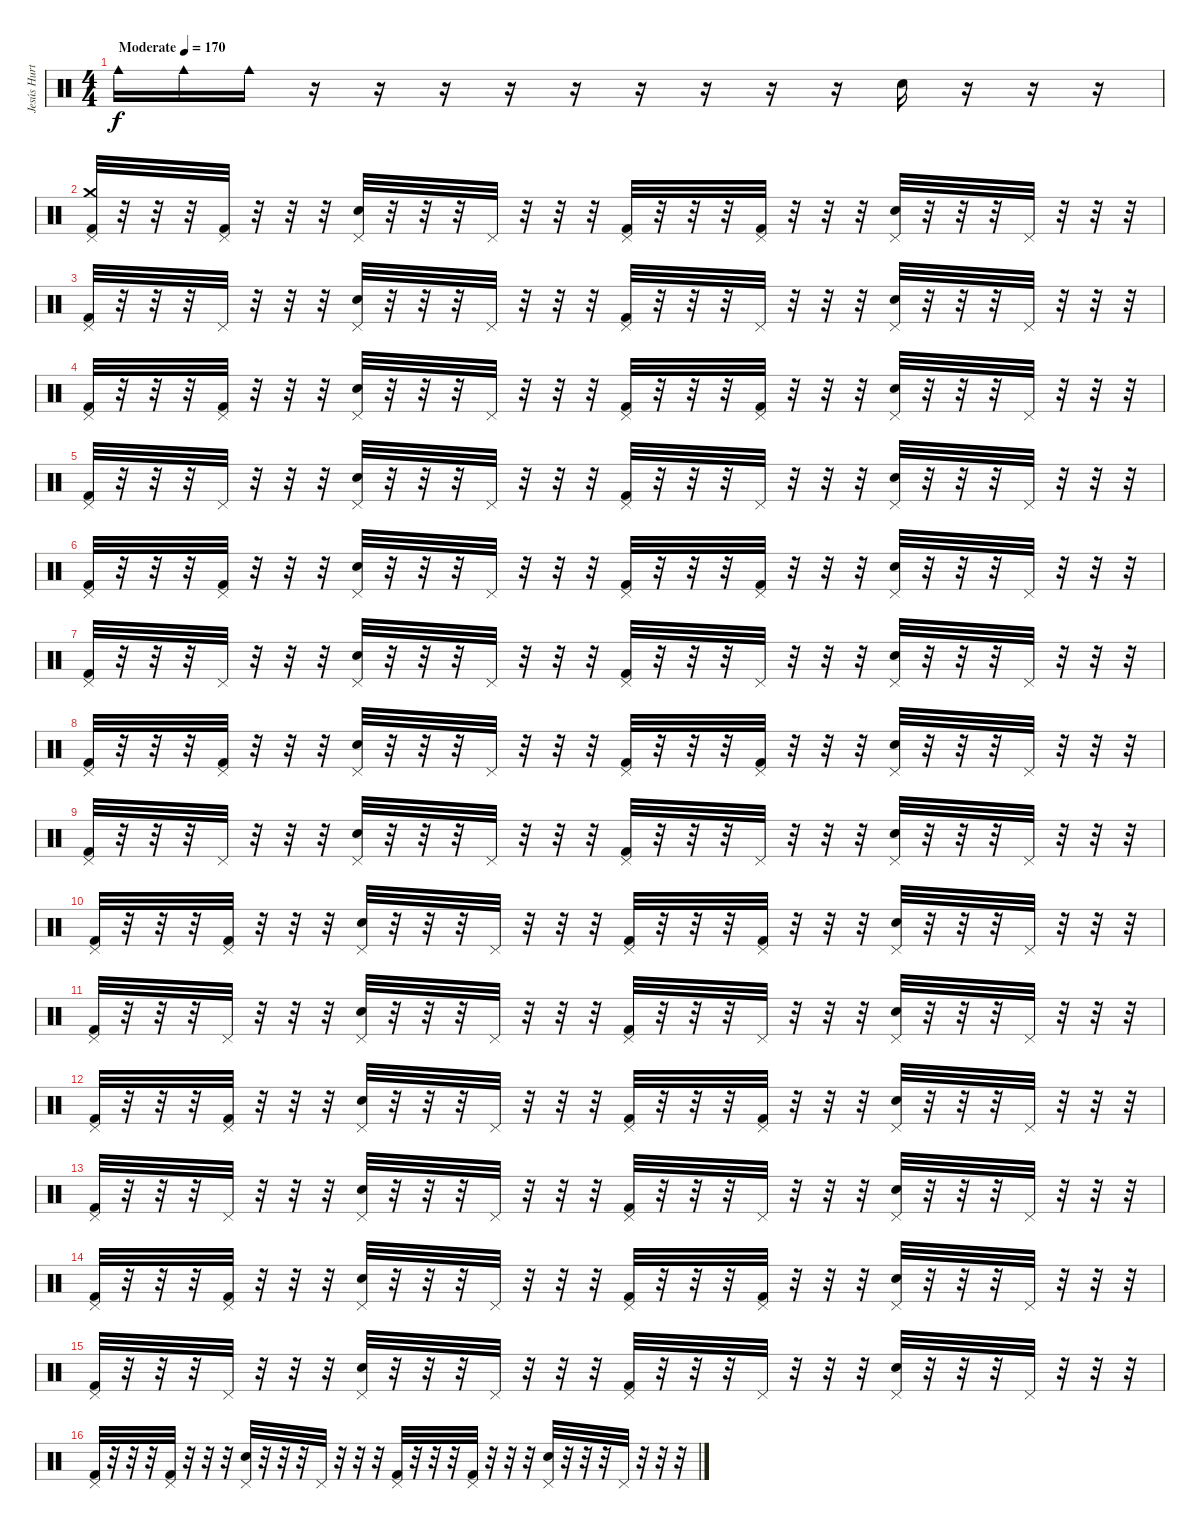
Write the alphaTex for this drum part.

\track ("Jesús Hurtado \"Jotache\"" "Jesús Hurt") {instrument percussion}
\staff {score}
\articulation defaults
\ts (4 4)
\tempo (170 "Moderate")
\clef neutral
\ks c "Cowbell medium (hit)".16{dy f} "Cowbell medium (hit)".16 "Cowbell medium (hit)".16
r.16 r.16 r.16 r.16 r.16 r.16 r.16 r.16 r.16 "Electric Snare (hit)".16 r.16 r.16 r.16 |
("Kick (hit) 2" "Crash medium (hit)" "Pedal Hi-Hat (hit)").32 r.32 r.32 r.32 ("Kick (hit) 2" "Pedal Hi-Hat (hit)").32 r.32 r.32 r.32 ("Electric Snare (hit)" "Pedal Hi-Hat (hit)").32 r.32 r.32 r.32 "Pedal Hi-Hat (hit)".32 r.32 r.32 r.32 ("Kick (hit) 2" "Pedal Hi-Hat (hit)").32 r.32 r.32 r.32 ("Kick (hit) 2" "Pedal Hi-Hat (hit)").32 r.32 r.32 r.32 ("Electric Snare (hit)" "Pedal Hi-Hat (hit)").32 r.32 r.32 r.32 "Pedal Hi-Hat (hit)".32 r.32 r.32 r.32 |
("Kick (hit) 2" "Pedal Hi-Hat (hit)").32 r.32 r.32 r.32 "Pedal Hi-Hat (hit)".32 r.32 r.32 r.32 ("Electric Snare (hit)" "Pedal Hi-Hat (hit)").32 r.32 r.32 r.32 "Pedal Hi-Hat (hit)".32 r.32 r.32 r.32 ("Kick (hit) 2" "Pedal Hi-Hat (hit)").32 r.32 r.32 r.32 "Pedal Hi-Hat (hit)".32 r.32 r.32 r.32 ("Electric Snare (hit)" "Pedal Hi-Hat (hit)").32 r.32 r.32 r.32 "Pedal Hi-Hat (hit)".32 r.32 r.32 r.32 |
("Kick (hit) 2" "Pedal Hi-Hat (hit)").32 r.32 r.32 r.32 ("Kick (hit) 2" "Pedal Hi-Hat (hit)").32 r.32 r.32 r.32 ("Electric Snare (hit)" "Pedal Hi-Hat (hit)").32 r.32 r.32 r.32 "Pedal Hi-Hat (hit)".32 r.32 r.32 r.32 ("Kick (hit) 2" "Pedal Hi-Hat (hit)").32 r.32 r.32 r.32 ("Kick (hit) 2" "Pedal Hi-Hat (hit)").32 r.32 r.32 r.32 ("Electric Snare (hit)" "Pedal Hi-Hat (hit)").32 r.32 r.32 r.32 "Pedal Hi-Hat (hit)".32 r.32 r.32 r.32 |
("Kick (hit) 2" "Pedal Hi-Hat (hit)").32 r.32 r.32 r.32 "Pedal Hi-Hat (hit)".32 r.32 r.32 r.32 ("Electric Snare (hit)" "Pedal Hi-Hat (hit)").32 r.32 r.32 r.32 "Pedal Hi-Hat (hit)".32 r.32 r.32 r.32 ("Kick (hit) 2" "Pedal Hi-Hat (hit)").32 r.32 r.32 r.32 "Pedal Hi-Hat (hit)".32 r.32 r.32 r.32 ("Electric Snare (hit)" "Pedal Hi-Hat (hit)").32 r.32 r.32 r.32 "Pedal Hi-Hat (hit)".32 r.32 r.32 r.32 |
("Kick (hit) 2" "Pedal Hi-Hat (hit)").32 r.32 r.32 r.32 ("Kick (hit) 2" "Pedal Hi-Hat (hit)").32 r.32 r.32 r.32 ("Electric Snare (hit)" "Pedal Hi-Hat (hit)").32 r.32 r.32 r.32 "Pedal Hi-Hat (hit)".32 r.32 r.32 r.32 ("Kick (hit) 2" "Pedal Hi-Hat (hit)").32 r.32 r.32 r.32 ("Kick (hit) 2" "Pedal Hi-Hat (hit)").32 r.32 r.32 r.32 ("Electric Snare (hit)" "Pedal Hi-Hat (hit)").32 r.32 r.32 r.32 "Pedal Hi-Hat (hit)".32 r.32 r.32 r.32 |
("Kick (hit) 2" "Pedal Hi-Hat (hit)").32 r.32 r.32 r.32 "Pedal Hi-Hat (hit)".32 r.32 r.32 r.32 ("Electric Snare (hit)" "Pedal Hi-Hat (hit)").32 r.32 r.32 r.32 "Pedal Hi-Hat (hit)".32 r.32 r.32 r.32 ("Kick (hit) 2" "Pedal Hi-Hat (hit)").32 r.32 r.32 r.32 "Pedal Hi-Hat (hit)".32 r.32 r.32 r.32 ("Electric Snare (hit)" "Pedal Hi-Hat (hit)").32 r.32 r.32 r.32 "Pedal Hi-Hat (hit)".32 r.32 r.32 r.32 |
("Kick (hit) 2" "Pedal Hi-Hat (hit)").32 r.32 r.32 r.32 ("Kick (hit) 2" "Pedal Hi-Hat (hit)").32 r.32 r.32 r.32 ("Electric Snare (hit)" "Pedal Hi-Hat (hit)").32 r.32 r.32 r.32 "Pedal Hi-Hat (hit)".32 r.32 r.32 r.32 ("Kick (hit) 2" "Pedal Hi-Hat (hit)").32 r.32 r.32 r.32 ("Kick (hit) 2" "Pedal Hi-Hat (hit)").32 r.32 r.32 r.32 ("Electric Snare (hit)" "Pedal Hi-Hat (hit)").32 r.32 r.32 r.32 "Pedal Hi-Hat (hit)".32 r.32 r.32 r.32 |
("Kick (hit) 2" "Pedal Hi-Hat (hit)").32 r.32 r.32 r.32 "Pedal Hi-Hat (hit)".32 r.32 r.32 r.32 ("Electric Snare (hit)" "Pedal Hi-Hat (hit)").32 r.32 r.32 r.32 "Pedal Hi-Hat (hit)".32 r.32 r.32 r.32 ("Kick (hit) 2" "Pedal Hi-Hat (hit)").32 r.32 r.32 r.32 "Pedal Hi-Hat (hit)".32 r.32 r.32 r.32 ("Electric Snare (hit)" "Pedal Hi-Hat (hit)").32 r.32 r.32 r.32 "Pedal Hi-Hat (hit)".32 r.32 r.32 r.32 |
("Kick (hit) 2" "Pedal Hi-Hat (hit)").32 r.32 r.32 r.32 ("Kick (hit) 2" "Pedal Hi-Hat (hit)").32 r.32 r.32 r.32 ("Electric Snare (hit)" "Pedal Hi-Hat (hit)").32 r.32 r.32 r.32 "Pedal Hi-Hat (hit)".32 r.32 r.32 r.32 ("Kick (hit) 2" "Pedal Hi-Hat (hit)").32 r.32 r.32 r.32 ("Kick (hit) 2" "Pedal Hi-Hat (hit)").32 r.32 r.32 r.32 ("Electric Snare (hit)" "Pedal Hi-Hat (hit)").32 r.32 r.32 r.32 "Pedal Hi-Hat (hit)".32 r.32 r.32 r.32 |
("Kick (hit) 2" "Pedal Hi-Hat (hit)").32 r.32 r.32 r.32 "Pedal Hi-Hat (hit)".32 r.32 r.32 r.32 ("Electric Snare (hit)" "Pedal Hi-Hat (hit)").32 r.32 r.32 r.32 "Pedal Hi-Hat (hit)".32 r.32 r.32 r.32 ("Kick (hit) 2" "Pedal Hi-Hat (hit)").32 r.32 r.32 r.32 "Pedal Hi-Hat (hit)".32 r.32 r.32 r.32 ("Electric Snare (hit)" "Pedal Hi-Hat (hit)").32 r.32 r.32 r.32 "Pedal Hi-Hat (hit)".32 r.32 r.32 r.32 |
("Kick (hit) 2" "Pedal Hi-Hat (hit)").32 r.32 r.32 r.32 ("Kick (hit) 2" "Pedal Hi-Hat (hit)").32 r.32 r.32 r.32 ("Electric Snare (hit)" "Pedal Hi-Hat (hit)").32 r.32 r.32 r.32 "Pedal Hi-Hat (hit)".32 r.32 r.32 r.32 ("Kick (hit) 2" "Pedal Hi-Hat (hit)").32 r.32 r.32 r.32 ("Kick (hit) 2" "Pedal Hi-Hat (hit)").32 r.32 r.32 r.32 ("Electric Snare (hit)" "Pedal Hi-Hat (hit)").32 r.32 r.32 r.32 "Pedal Hi-Hat (hit)".32 r.32 r.32 r.32 |
("Kick (hit) 2" "Pedal Hi-Hat (hit)").32 r.32 r.32 r.32 "Pedal Hi-Hat (hit)".32 r.32 r.32 r.32 ("Electric Snare (hit)" "Pedal Hi-Hat (hit)").32 r.32 r.32 r.32 "Pedal Hi-Hat (hit)".32 r.32 r.32 r.32 ("Kick (hit) 2" "Pedal Hi-Hat (hit)").32 r.32 r.32 r.32 "Pedal Hi-Hat (hit)".32 r.32 r.32 r.32 ("Electric Snare (hit)" "Pedal Hi-Hat (hit)").32 r.32 r.32 r.32 "Pedal Hi-Hat (hit)".32 r.32 r.32 r.32 |
("Kick (hit) 2" "Pedal Hi-Hat (hit)").32 r.32 r.32 r.32 ("Kick (hit) 2" "Pedal Hi-Hat (hit)").32 r.32 r.32 r.32 ("Electric Snare (hit)" "Pedal Hi-Hat (hit)").32 r.32 r.32 r.32 "Pedal Hi-Hat (hit)".32 r.32 r.32 r.32 ("Kick (hit) 2" "Pedal Hi-Hat (hit)").32 r.32 r.32 r.32 ("Kick (hit) 2" "Pedal Hi-Hat (hit)").32 r.32 r.32 r.32 ("Electric Snare (hit)" "Pedal Hi-Hat (hit)").32 r.32 r.32 r.32 "Pedal Hi-Hat (hit)".32 r.32 r.32 r.32 |
("Kick (hit) 2" "Pedal Hi-Hat (hit)").32 r.32 r.32 r.32 "Pedal Hi-Hat (hit)".32 r.32 r.32 r.32 ("Electric Snare (hit)" "Pedal Hi-Hat (hit)").32 r.32 r.32 r.32 "Pedal Hi-Hat (hit)".32 r.32 r.32 r.32 ("Kick (hit) 2" "Pedal Hi-Hat (hit)").32 r.32 r.32 r.32 "Pedal Hi-Hat (hit)".32 r.32 r.32 r.32 ("Electric Snare (hit)" "Pedal Hi-Hat (hit)").32 r.32 r.32 r.32 "Pedal Hi-Hat (hit)".32 r.32 r.32 r.32 |
("Kick (hit) 2" "Pedal Hi-Hat (hit)").32 r.32 r.32 r.32 ("Kick (hit) 2" "Pedal Hi-Hat (hit)").32 r.32 r.32 r.32 ("Electric Snare (hit)" "Pedal Hi-Hat (hit)").32 r.32 r.32 r.32 "Pedal Hi-Hat (hit)".32 r.32 r.32 r.32 ("Kick (hit) 2" "Pedal Hi-Hat (hit)").32 r.32 r.32 r.32 ("Kick (hit) 2" "Pedal Hi-Hat (hit)").32 r.32 r.32 r.32 ("Electric Snare (hit)" "Pedal Hi-Hat (hit)").32 r.32 r.32 r.32 "Pedal Hi-Hat (hit)".32 r.32 r.32 r.32
